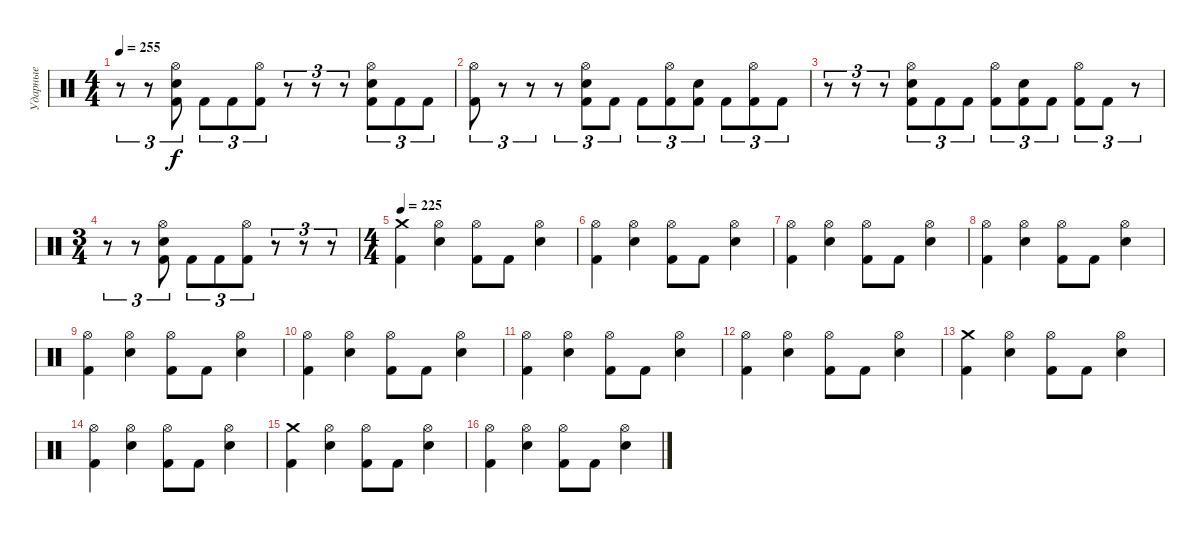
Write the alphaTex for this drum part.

\track ("Ударные" "Ударные") {instrument percussion}
\staff {score}
\articulation defaults
\ts (4 4)
\tempo 255
\clef neutral
\ks c
r.8{tu (3 2) dy f} r.8{tu (3 2)} ("Hi-Hat (open)" "Snare (hit) 2" "Kick (hit) 2").8{tu (3 2)} "Kick (hit) 2".8{tu (3 2)} "Kick (hit) 2".8{tu (3 2)} ("Hi-Hat (open)" "Kick (hit) 2").8{tu (3 2)} r.8{tu (3 2)} r.8{tu (3 2)} r.8{tu (3 2)} ("Hi-Hat (open)" "Snare (hit) 2" "Kick (hit) 2").8{tu (3 2)} "Kick (hit) 2".8{tu (3 2)} "Kick (hit) 2".8{tu (3 2)} |
("Hi-Hat (open)" "Kick (hit) 2").8{tu (3 2)} r.8{tu (3 2)} r.8{tu (3 2)} r.8{tu (3 2)} ("Hi-Hat (open)" "Snare (hit) 2" "Kick (hit) 2").8{tu (3 2)} "Kick (hit) 2".8{tu (3 2)} "Kick (hit) 2".8{tu (3 2)} ("Hi-Hat (open)" "Kick (hit) 2").8{tu (3 2)} ("Snare (hit) 2" "Kick (hit) 2").8{tu (3 2)} "Kick (hit) 2".8{tu (3 2)} ("Hi-Hat (open)" "Kick (hit) 2").8{tu (3 2)} "Kick (hit) 2".8{tu (3 2)} |
r.8{tu (3 2)} r.8{tu (3 2)} r.8{tu (3 2)} ("Hi-Hat (open)" "Snare (hit) 2" "Kick (hit) 2").8{tu (3 2)} "Kick (hit) 2".8{tu (3 2)} "Kick (hit) 2".8{tu (3 2)} ("Hi-Hat (open)" "Kick (hit) 2").8{tu (3 2)} ("Snare (hit) 2" "Kick (hit) 2").8{tu (3 2)} "Kick (hit) 2".8{tu (3 2)} ("Hi-Hat (open)" "Kick (hit) 2").8{tu (3 2)} "Kick (hit) 2".8{tu (3 2)} r.8{tu (3 2)} |
\ts (3 4)
r.8{tu (3 2)} r.8{tu (3 2)} ("Hi-Hat (open)" "Snare (hit) 2" "Kick (hit) 2").8{tu (3 2)} "Kick (hit) 2".8{tu (3 2)} "Kick (hit) 2".8{tu (3 2)} ("Hi-Hat (open)" "Kick (hit) 2").8{tu (3 2)} r.8{tu (3 2)} r.8{tu (3 2)} r.8{tu (3 2)} |
\ts (4 4)
\tempo 225
("Crash medium (hit)" "Kick (hit) 2").4 ("Hi-Hat (open)" "Snare (hit) 2").4 ("Hi-Hat (open)" "Kick (hit) 2").8 "Kick (hit) 2".8 ("Hi-Hat (open)" "Snare (hit) 2").4 |
("Hi-Hat (open)" "Kick (hit) 2").4 ("Hi-Hat (open)" "Snare (hit) 2").4 ("Hi-Hat (open)" "Kick (hit) 2").8 "Kick (hit) 2".8 ("Hi-Hat (open)" "Snare (hit) 2").4 |
("Hi-Hat (open)" "Kick (hit) 2").4 ("Hi-Hat (open)" "Snare (hit) 2").4 ("Hi-Hat (open)" "Kick (hit) 2").8 "Kick (hit) 2".8 ("Hi-Hat (open)" "Snare (hit) 2").4 |
("Hi-Hat (open)" "Kick (hit) 2").4 ("Hi-Hat (open)" "Snare (hit) 2").4 ("Hi-Hat (open)" "Kick (hit) 2").8 "Kick (hit) 2".8 ("Hi-Hat (open)" "Snare (hit) 2").4 |
("Hi-Hat (open)" "Kick (hit) 2").4 ("Hi-Hat (open)" "Snare (hit) 2").4 ("Hi-Hat (open)" "Kick (hit) 2").8 "Kick (hit) 2".8 ("Hi-Hat (open)" "Snare (hit) 2").4 |
("Hi-Hat (open)" "Kick (hit) 2").4 ("Hi-Hat (open)" "Snare (hit) 2").4 ("Hi-Hat (open)" "Kick (hit) 2").8 "Kick (hit) 2".8 ("Hi-Hat (open)" "Snare (hit) 2").4 |
("Hi-Hat (open)" "Kick (hit) 2").4 ("Hi-Hat (open)" "Snare (hit) 2").4 ("Hi-Hat (open)" "Kick (hit) 2").8 "Kick (hit) 2".8 ("Hi-Hat (open)" "Snare (hit) 2").4 |
("Hi-Hat (open)" "Kick (hit) 2").4 ("Hi-Hat (open)" "Snare (hit) 2").4 ("Hi-Hat (open)" "Kick (hit) 2").8 "Kick (hit) 2".8 ("Hi-Hat (open)" "Snare (hit) 2").4 |
("Crash medium (hit)" "Kick (hit) 2").4 ("Hi-Hat (open)" "Snare (hit) 2").4 ("Hi-Hat (open)" "Kick (hit) 2").8 "Kick (hit) 2".8 ("Hi-Hat (open)" "Snare (hit) 2").4 |
("Hi-Hat (open)" "Kick (hit) 2").4 ("Hi-Hat (open)" "Snare (hit) 2").4 ("Hi-Hat (open)" "Kick (hit) 2").8 "Kick (hit) 2".8 ("Hi-Hat (open)" "Snare (hit) 2").4 |
("Crash medium (hit)" "Kick (hit) 2").4 ("Hi-Hat (open)" "Snare (hit) 2").4 ("Hi-Hat (open)" "Kick (hit) 2").8 "Kick (hit) 2".8 ("Hi-Hat (open)" "Snare (hit) 2").4 |
("Hi-Hat (open)" "Kick (hit) 2").4 ("Hi-Hat (open)" "Snare (hit) 2").4 ("Hi-Hat (open)" "Kick (hit) 2").8 "Kick (hit) 2".8 ("Hi-Hat (open)" "Snare (hit) 2").4
